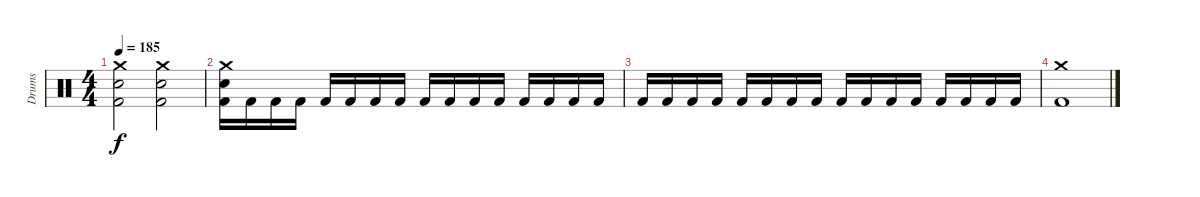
\track ("Drums" "Drums") {instrument percussion}
\staff {score}
\articulation defaults
\ts (4 4)
\tempo 185
\clef neutral
\ks c
("Crash medium (hit)" "Snare (hit) 2" "Kick (hit) 2").2{dy f} ("Crash medium (hit)" "Snare (hit) 2" "Kick (hit) 2").2 |
("Crash medium (hit)" "Snare (hit) 2" "Kick (hit) 2").16 "Kick (hit) 2".16 "Kick (hit) 2".16 "Kick (hit) 2".16 "Kick (hit) 2".16 "Kick (hit) 2".16 "Kick (hit) 2".16 "Kick (hit) 2".16 "Kick (hit) 2".16 "Kick (hit) 2".16 "Kick (hit) 2".16 "Kick (hit) 2".16 "Kick (hit) 2".16 "Kick (hit) 2".16 "Kick (hit) 2".16 "Kick (hit) 2".16 |
"Kick (hit) 2".16 "Kick (hit) 2".16 "Kick (hit) 2".16 "Kick (hit) 2".16 "Kick (hit) 2".16 "Kick (hit) 2".16 "Kick (hit) 2".16 "Kick (hit) 2".16 "Kick (hit) 2".16 "Kick (hit) 2".16 "Kick (hit) 2".16 "Kick (hit) 2".16 "Kick (hit) 2".16 "Kick (hit) 2".16 "Kick (hit) 2".16 "Kick (hit) 2".16 |
("Crash medium (hit)" "Kick (hit) 2").1
